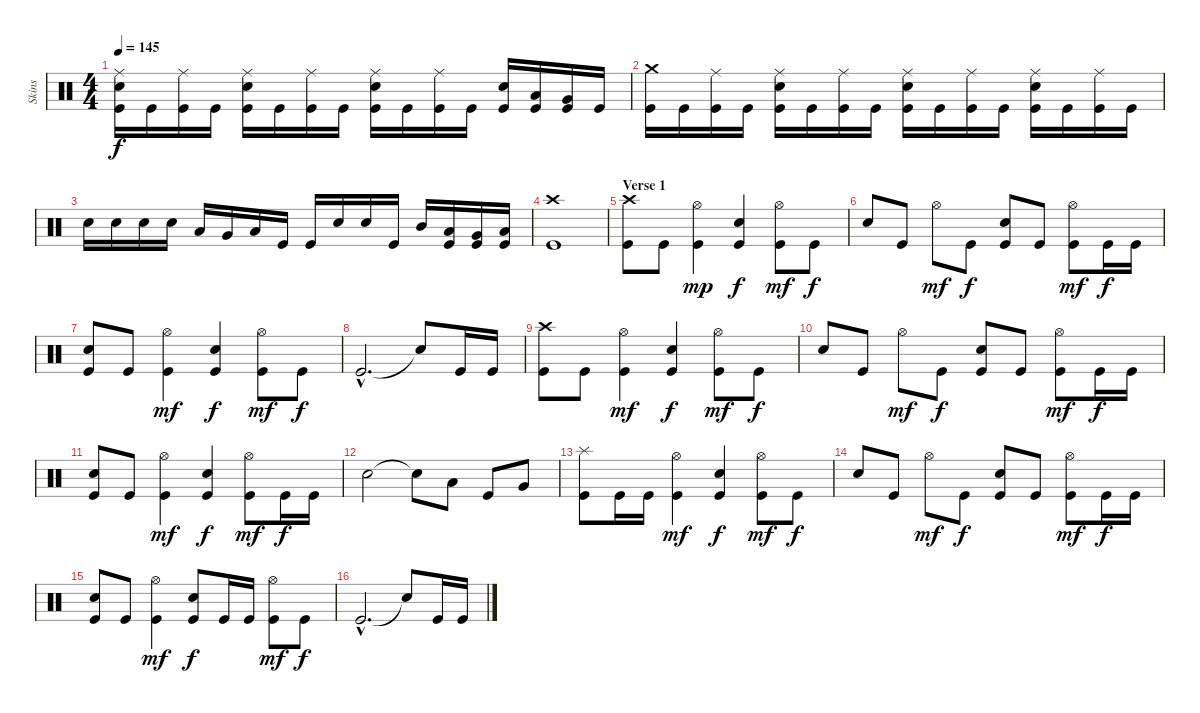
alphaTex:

\track ("Skins" "Skins") {instrument percussion}
\staff {score}
\articulation defaults
\ts (4 4)
\tempo 145
\clef neutral
\ks c
("Ride (middle)" "Electric Snare (hit)" "Kick (hit)").16{dy f} "Kick (hit)".16 ("Ride (middle)" "Kick (hit)").16 "Kick (hit)".16 ("Ride (middle)" "Electric Snare (hit)" "Kick (hit)").16 "Kick (hit)".16 ("Ride (middle)" "Kick (hit)").16 "Kick (hit)".16 ("Ride (middle)" "Electric Snare (hit)" "Kick (hit)").16 "Kick (hit)".16 ("Ride (middle)" "Kick (hit)").16 "Kick (hit)".16 ("Electric Snare (hit)" "Kick (hit)").16 ("Low Tom (hit)" "Kick (hit)").16 ("Very Low Tom (hit)" "Kick (hit)").16 "Kick (hit)".16 |
("Crash medium (hit)" "Kick (hit)").16 "Kick (hit)".16 ("Ride (middle)" "Kick (hit)").16 "Kick (hit)".16 ("Ride (middle)" "Electric Snare (hit)" "Kick (hit)").16 "Kick (hit)".16 ("Ride (middle)" "Kick (hit)").16 "Kick (hit)".16 ("Ride (middle)" "Electric Snare (hit)" "Kick (hit)").16 "Kick (hit)".16 ("Ride (middle)" "Kick (hit)").16 "Kick (hit)".16 ("Ride (middle)" "Electric Snare (hit)" "Kick (hit)").16 "Kick (hit)".16 ("Ride (middle)" "Kick (hit)").16 "Kick (hit)".16 |
"Electric Snare (hit)".16 "Electric Snare (hit)".16 "Snare (hit) 2".16 "Snare (hit) 2".16 "Low Tom (hit)".16 "Very Low Tom (hit)".16 "Low Floor Tom (hit)".16 "Kick (hit)".16 "Kick (hit)".16 "Snare (hit) 2".16 "Snare (hit) 2".16 "Kick (hit)".16 "Mid Tom (hit)".16 ("Low Tom (hit)" "Kick (hit)").16 ("Very Low Tom (hit)" "Kick (hit)").16 ("Low Floor Tom (hit)" "Kick (hit)").16 |
("Crash high (hit)" "Kick (hit)").1 |
\section ("" "Verse 1")
("Crash high (hit)" "Kick (hit)").8 "Kick (hit)".8 ("Hi-Hat (open)" "Kick (hit)").4{dy mp} ("Electric Snare (hit)" "Kick (hit)").4{dy f} ("Hi-Hat (open)" "Kick (hit)").8{dy mf} "Kick (hit)".8{dy f} |
"Electric Snare (hit)".8 "Kick (hit)".8 "Hi-Hat (open)".8{dy mf} "Kick (hit)".8{dy f} ("Electric Snare (hit)" "Kick (hit)").8 "Kick (hit)".8 ("Hi-Hat (open)" "Kick (hit)").8{dy mf} "Kick (hit)".16{dy f} "Kick (hit)".16 |
("Electric Snare (hit)" "Kick (hit)").8 "Kick (hit)".8 ("Hi-Hat (open)" "Kick (hit)").4{dy mf} ("Electric Snare (hit)" "Kick (hit)").4{dy f} ("Hi-Hat (open)" "Kick (hit)").8{dy mf} "Kick (hit)".8{dy f} |
"Kick (hit)"{hac}.2{d} "Snare (hit)"{t}.8 "Kick (hit)".16 "Kick (hit)".16 |
("Crash high (hit)" "Kick (hit)").8 "Kick (hit)".8 ("Hi-Hat (open)" "Kick (hit)").4{dy mf} ("Electric Snare (hit)" "Kick (hit)").4{dy f} ("Hi-Hat (open)" "Kick (hit)").8{dy mf} "Kick (hit)".8{dy f} |
"Electric Snare (hit)".8 "Kick (hit)".8 "Hi-Hat (open)".8{dy mf} "Kick (hit)".8{dy f} ("Electric Snare (hit)" "Kick (hit)").8 "Kick (hit)".8 ("Hi-Hat (open)" "Kick (hit)").8{dy mf} "Kick (hit)".16{dy f} "Kick (hit)".16 |
("Electric Snare (hit)" "Kick (hit)").8 "Kick (hit)".8 ("Hi-Hat (open)" "Kick (hit)").4{dy mf} ("Electric Snare (hit)" "Kick (hit)").4{dy f} ("Hi-Hat (open)" "Kick (hit)").8{dy mf} "Kick (hit)".16{dy f} "Kick (hit)".16 |
"Snare (hit) 2".2 "Snare (hit)"{t}.8 "Low Tom (hit)".8 "Kick (hit)".8 "Very Low Tom (hit)".8 |
("Splash (hit)" "Kick (hit)").8 "Kick (hit)".16 "Kick (hit)".16 ("Hi-Hat (open)" "Kick (hit)").4{dy mf} ("Electric Snare (hit)" "Kick (hit)").4{dy f} ("Hi-Hat (open)" "Kick (hit)").8{dy mf} "Kick (hit)".8{dy f} |
"Electric Snare (hit)".8 "Kick (hit)".8 "Hi-Hat (open)".8{dy mf} "Kick (hit)".8{dy f} ("Electric Snare (hit)" "Kick (hit)").8 "Kick (hit)".8 ("Hi-Hat (open)" "Kick (hit)").8{dy mf} "Kick (hit)".16{dy f} "Kick (hit)".16 |
("Electric Snare (hit)" "Kick (hit)").8 "Kick (hit)".8 ("Hi-Hat (open)" "Kick (hit)").4{dy mf} ("Electric Snare (hit)" "Kick (hit)").8{dy f} "Kick (hit)".16 "Kick (hit)".16 ("Hi-Hat (open)" "Kick (hit)").8{dy mf} "Kick (hit)".8{dy f} |
"Kick (hit)"{hac}.2{d} "Snare (hit)"{t}.8 "Kick (hit)".16 "Kick (hit)".16
